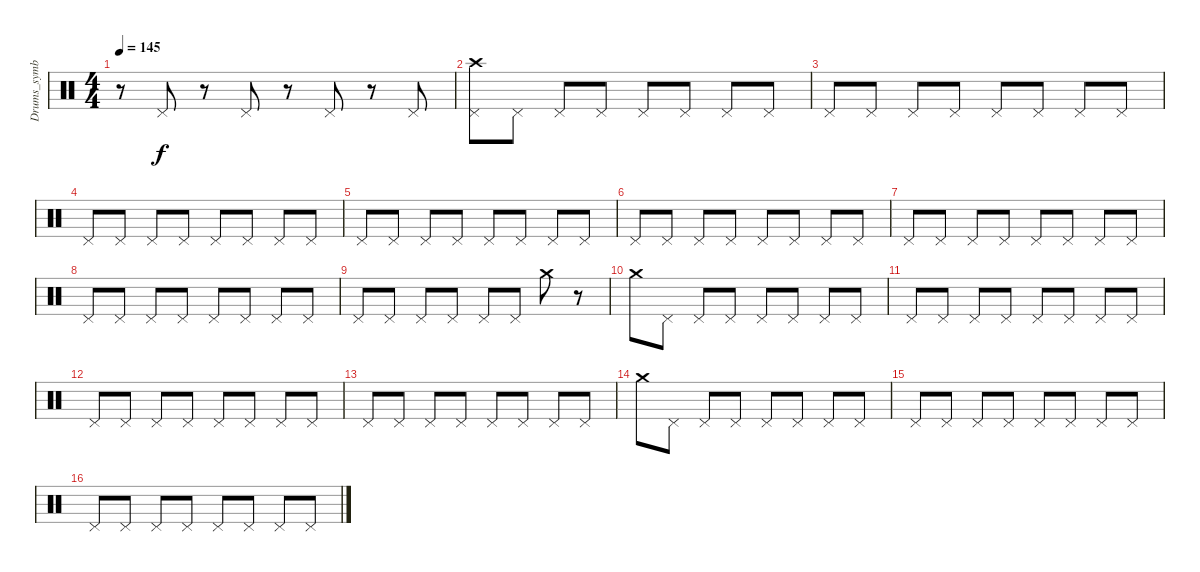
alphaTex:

\track ("Drums_symbal" "Drums_symb") {instrument percussion}
\staff {score}
\articulation defaults
\ts (4 4)
\tempo 145
\clef neutral
\ks c
r.8{dy f} "Pedal Hi-Hat (hit)".8 r.8 "Pedal Hi-Hat (hit)".8 r.8 "Pedal Hi-Hat (hit)".8 r.8 "Pedal Hi-Hat (hit)".8 |
("Pedal Hi-Hat (hit)" "Crash high (hit)").8 "Pedal Hi-Hat (hit)".8 "Pedal Hi-Hat (hit)".8 "Pedal Hi-Hat (hit)".8 "Pedal Hi-Hat (hit)".8 "Pedal Hi-Hat (hit)".8 "Pedal Hi-Hat (hit)".8 "Pedal Hi-Hat (hit)".8 |
"Pedal Hi-Hat (hit)".8 "Pedal Hi-Hat (hit)".8 "Pedal Hi-Hat (hit)".8 "Pedal Hi-Hat (hit)".8 "Pedal Hi-Hat (hit)".8 "Pedal Hi-Hat (hit)".8 "Pedal Hi-Hat (hit)".8 "Pedal Hi-Hat (hit)".8 |
"Pedal Hi-Hat (hit)".8 "Pedal Hi-Hat (hit)".8 "Pedal Hi-Hat (hit)".8 "Pedal Hi-Hat (hit)".8 "Pedal Hi-Hat (hit)".8 "Pedal Hi-Hat (hit)".8 "Pedal Hi-Hat (hit)".8 "Pedal Hi-Hat (hit)".8 |
"Pedal Hi-Hat (hit)".8 "Pedal Hi-Hat (hit)".8 "Pedal Hi-Hat (hit)".8 "Pedal Hi-Hat (hit)".8 "Pedal Hi-Hat (hit)".8 "Pedal Hi-Hat (hit)".8 "Pedal Hi-Hat (hit)".8 "Pedal Hi-Hat (hit)".8 |
"Pedal Hi-Hat (hit)".8 "Pedal Hi-Hat (hit)".8 "Pedal Hi-Hat (hit)".8 "Pedal Hi-Hat (hit)".8 "Pedal Hi-Hat (hit)".8 "Pedal Hi-Hat (hit)".8 "Pedal Hi-Hat (hit)".8 "Pedal Hi-Hat (hit)".8 |
"Pedal Hi-Hat (hit)".8 "Pedal Hi-Hat (hit)".8 "Pedal Hi-Hat (hit)".8 "Pedal Hi-Hat (hit)".8 "Pedal Hi-Hat (hit)".8 "Pedal Hi-Hat (hit)".8 "Pedal Hi-Hat (hit)".8 "Pedal Hi-Hat (hit)".8 |
"Pedal Hi-Hat (hit)".8 "Pedal Hi-Hat (hit)".8 "Pedal Hi-Hat (hit)".8 "Pedal Hi-Hat (hit)".8 "Pedal Hi-Hat (hit)".8 "Pedal Hi-Hat (hit)".8 "Pedal Hi-Hat (hit)".8 "Pedal Hi-Hat (hit)".8 |
"Pedal Hi-Hat (hit)".8 "Pedal Hi-Hat (hit)".8 "Pedal Hi-Hat (hit)".8 "Pedal Hi-Hat (hit)".8 "Pedal Hi-Hat (hit)".8 "Pedal Hi-Hat (hit)".8 "Crash medium (hit)".8 r.8 |
"Crash medium (hit)".8 "Pedal Hi-Hat (hit)".8 "Pedal Hi-Hat (hit)".8 "Pedal Hi-Hat (hit)".8 "Pedal Hi-Hat (hit)".8 "Pedal Hi-Hat (hit)".8 "Pedal Hi-Hat (hit)".8 "Pedal Hi-Hat (hit)".8 |
"Pedal Hi-Hat (hit)".8 "Pedal Hi-Hat (hit)".8 "Pedal Hi-Hat (hit)".8 "Pedal Hi-Hat (hit)".8 "Pedal Hi-Hat (hit)".8 "Pedal Hi-Hat (hit)".8 "Pedal Hi-Hat (hit)".8 "Pedal Hi-Hat (hit)".8 |
"Pedal Hi-Hat (hit)".8 "Pedal Hi-Hat (hit)".8 "Pedal Hi-Hat (hit)".8 "Pedal Hi-Hat (hit)".8 "Pedal Hi-Hat (hit)".8 "Pedal Hi-Hat (hit)".8 "Pedal Hi-Hat (hit)".8 "Pedal Hi-Hat (hit)".8 |
"Pedal Hi-Hat (hit)".8 "Pedal Hi-Hat (hit)".8 "Pedal Hi-Hat (hit)".8 "Pedal Hi-Hat (hit)".8 "Pedal Hi-Hat (hit)".8 "Pedal Hi-Hat (hit)".8 "Pedal Hi-Hat (hit)".8 "Pedal Hi-Hat (hit)".8 |
"Crash medium (hit)".8 "Pedal Hi-Hat (hit)".8 "Pedal Hi-Hat (hit)".8 "Pedal Hi-Hat (hit)".8 "Pedal Hi-Hat (hit)".8 "Pedal Hi-Hat (hit)".8 "Pedal Hi-Hat (hit)".8 "Pedal Hi-Hat (hit)".8 |
"Pedal Hi-Hat (hit)".8 "Pedal Hi-Hat (hit)".8 "Pedal Hi-Hat (hit)".8 "Pedal Hi-Hat (hit)".8 "Pedal Hi-Hat (hit)".8 "Pedal Hi-Hat (hit)".8 "Pedal Hi-Hat (hit)".8 "Pedal Hi-Hat (hit)".8 |
"Pedal Hi-Hat (hit)".8 "Pedal Hi-Hat (hit)".8 "Pedal Hi-Hat (hit)".8 "Pedal Hi-Hat (hit)".8 "Pedal Hi-Hat (hit)".8 "Pedal Hi-Hat (hit)".8 "Pedal Hi-Hat (hit)".8 "Pedal Hi-Hat (hit)".8
